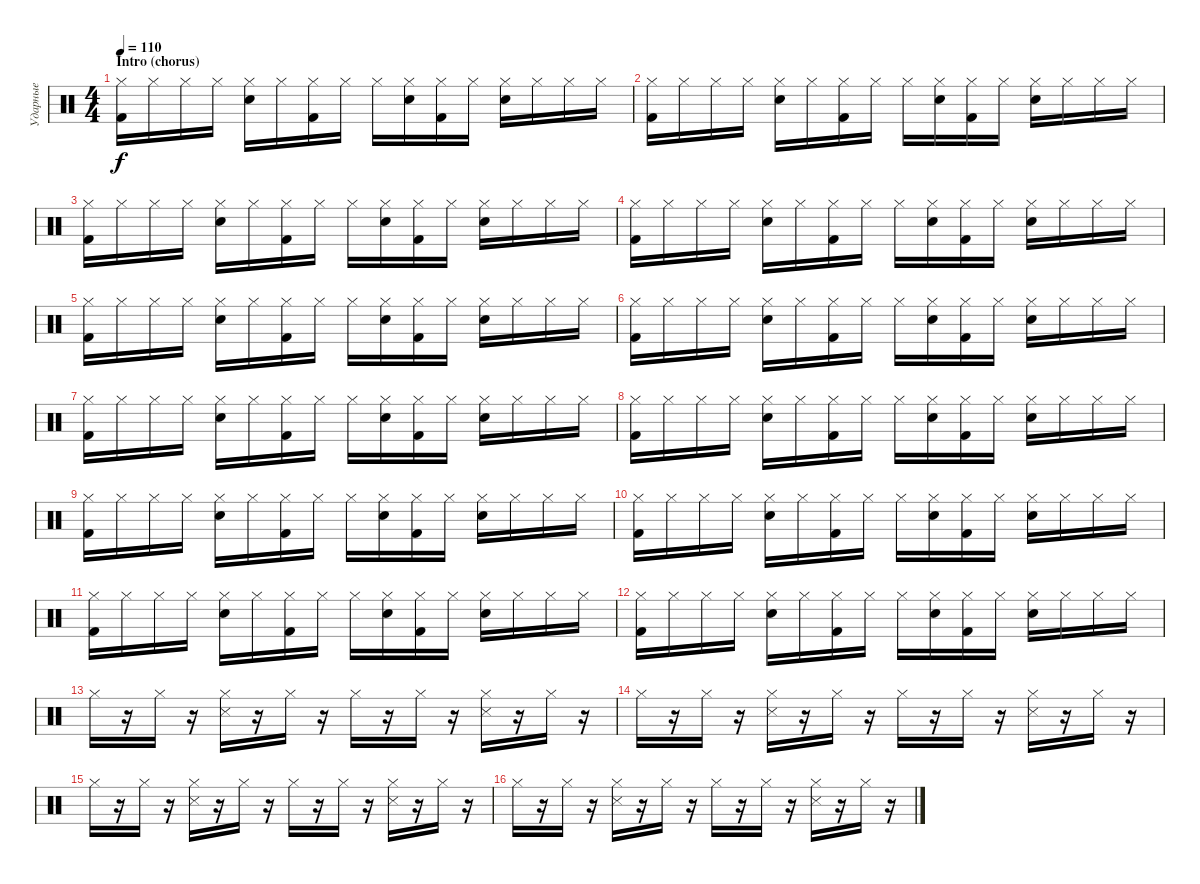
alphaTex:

\track ("Ударные" "Ударные") {instrument percussion}
\staff {score}
\articulation defaults
\ts (4 4)
\section ("" "Intro (chorus)")
\tempo 110
\clef neutral
\ks c
("Hi-Hat (closed)" "Kick (hit) 2").16{dy f} "Hi-Hat (closed)".16 "Hi-Hat (closed)".16 "Hi-Hat (closed)".16 ("Hi-Hat (closed)" "Snare (hit) 2").16 "Hi-Hat (closed)".16 ("Hi-Hat (closed)" "Kick (hit) 2").16 "Hi-Hat (closed)".16 "Hi-Hat (closed)".16 ("Hi-Hat (closed)" "Snare (hit) 2").16 ("Hi-Hat (closed)" "Kick (hit) 2").16 "Hi-Hat (closed)".16 ("Hi-Hat (closed)" "Snare (hit) 2").16 "Hi-Hat (closed)".16 "Hi-Hat (closed)".16 "Hi-Hat (closed)".16 |
("Hi-Hat (closed)" "Kick (hit) 2").16 "Hi-Hat (closed)".16 "Hi-Hat (closed)".16 "Hi-Hat (closed)".16 ("Hi-Hat (closed)" "Snare (hit) 2").16 "Hi-Hat (closed)".16 ("Hi-Hat (closed)" "Kick (hit) 2").16 "Hi-Hat (closed)".16 "Hi-Hat (closed)".16 ("Hi-Hat (closed)" "Snare (hit) 2").16 ("Hi-Hat (closed)" "Kick (hit) 2").16 "Hi-Hat (closed)".16 ("Hi-Hat (closed)" "Snare (hit) 2").16 "Hi-Hat (closed)".16 "Hi-Hat (closed)".16 "Hi-Hat (closed)".16 |
("Hi-Hat (closed)" "Kick (hit) 2").16 "Hi-Hat (closed)".16 "Hi-Hat (closed)".16 "Hi-Hat (closed)".16 ("Hi-Hat (closed)" "Snare (hit) 2").16 "Hi-Hat (closed)".16 ("Hi-Hat (closed)" "Kick (hit) 2").16 "Hi-Hat (closed)".16 "Hi-Hat (closed)".16 ("Hi-Hat (closed)" "Snare (hit) 2").16 ("Hi-Hat (closed)" "Kick (hit) 2").16 "Hi-Hat (closed)".16 ("Hi-Hat (closed)" "Snare (hit) 2").16 "Hi-Hat (closed)".16 "Hi-Hat (closed)".16 "Hi-Hat (closed)".16 |
("Hi-Hat (closed)" "Kick (hit) 2").16 "Hi-Hat (closed)".16 "Hi-Hat (closed)".16 "Hi-Hat (closed)".16 ("Hi-Hat (closed)" "Snare (hit) 2").16 "Hi-Hat (closed)".16 ("Hi-Hat (closed)" "Kick (hit) 2").16 "Hi-Hat (closed)".16 "Hi-Hat (closed)".16 ("Hi-Hat (closed)" "Snare (hit) 2").16 ("Hi-Hat (closed)" "Kick (hit) 2").16 "Hi-Hat (closed)".16 ("Hi-Hat (closed)" "Snare (hit) 2").16 "Hi-Hat (closed)".16 "Hi-Hat (closed)".16 "Hi-Hat (closed)".16 |
("Hi-Hat (closed)" "Kick (hit) 2").16 "Hi-Hat (closed)".16 "Hi-Hat (closed)".16 "Hi-Hat (closed)".16 ("Hi-Hat (closed)" "Snare (hit) 2").16 "Hi-Hat (closed)".16 ("Hi-Hat (closed)" "Kick (hit) 2").16 "Hi-Hat (closed)".16 "Hi-Hat (closed)".16 ("Hi-Hat (closed)" "Snare (hit) 2").16 ("Hi-Hat (closed)" "Kick (hit) 2").16 "Hi-Hat (closed)".16 ("Hi-Hat (closed)" "Snare (hit) 2").16 "Hi-Hat (closed)".16 "Hi-Hat (closed)".16 "Hi-Hat (closed)".16 |
("Hi-Hat (closed)" "Kick (hit) 2").16 "Hi-Hat (closed)".16 "Hi-Hat (closed)".16 "Hi-Hat (closed)".16 ("Hi-Hat (closed)" "Snare (hit) 2").16 "Hi-Hat (closed)".16 ("Hi-Hat (closed)" "Kick (hit) 2").16 "Hi-Hat (closed)".16 "Hi-Hat (closed)".16 ("Hi-Hat (closed)" "Snare (hit) 2").16 ("Hi-Hat (closed)" "Kick (hit) 2").16 "Hi-Hat (closed)".16 ("Hi-Hat (closed)" "Snare (hit) 2").16 "Hi-Hat (closed)".16 "Hi-Hat (closed)".16 "Hi-Hat (closed)".16 |
("Hi-Hat (closed)" "Kick (hit) 2").16 "Hi-Hat (closed)".16 "Hi-Hat (closed)".16 "Hi-Hat (closed)".16 ("Hi-Hat (closed)" "Snare (hit) 2").16 "Hi-Hat (closed)".16 ("Hi-Hat (closed)" "Kick (hit) 2").16 "Hi-Hat (closed)".16 "Hi-Hat (closed)".16 ("Hi-Hat (closed)" "Snare (hit) 2").16 ("Hi-Hat (closed)" "Kick (hit) 2").16 "Hi-Hat (closed)".16 ("Hi-Hat (closed)" "Snare (hit) 2").16 "Hi-Hat (closed)".16 "Hi-Hat (closed)".16 "Hi-Hat (closed)".16 |
("Hi-Hat (closed)" "Kick (hit) 2").16 "Hi-Hat (closed)".16 "Hi-Hat (closed)".16 "Hi-Hat (closed)".16 ("Hi-Hat (closed)" "Snare (hit) 2").16 "Hi-Hat (closed)".16 ("Hi-Hat (closed)" "Kick (hit) 2").16 "Hi-Hat (closed)".16 "Hi-Hat (closed)".16 ("Hi-Hat (closed)" "Snare (hit) 2").16 ("Hi-Hat (closed)" "Kick (hit) 2").16 "Hi-Hat (closed)".16 ("Hi-Hat (closed)" "Snare (hit) 2").16 "Hi-Hat (closed)".16 "Hi-Hat (closed)".16 "Hi-Hat (closed)".16 |
("Hi-Hat (closed)" "Kick (hit) 2").16 "Hi-Hat (closed)".16 "Hi-Hat (closed)".16 "Hi-Hat (closed)".16 ("Hi-Hat (closed)" "Snare (hit) 2").16 "Hi-Hat (closed)".16 ("Hi-Hat (closed)" "Kick (hit) 2").16 "Hi-Hat (closed)".16 "Hi-Hat (closed)".16 ("Hi-Hat (closed)" "Snare (hit) 2").16 ("Hi-Hat (closed)" "Kick (hit) 2").16 "Hi-Hat (closed)".16 ("Hi-Hat (closed)" "Snare (hit) 2").16 "Hi-Hat (closed)".16 "Hi-Hat (closed)".16 "Hi-Hat (closed)".16 |
("Hi-Hat (closed)" "Kick (hit) 2").16 "Hi-Hat (closed)".16 "Hi-Hat (closed)".16 "Hi-Hat (closed)".16 ("Hi-Hat (closed)" "Snare (hit) 2").16 "Hi-Hat (closed)".16 ("Hi-Hat (closed)" "Kick (hit) 2").16 "Hi-Hat (closed)".16 "Hi-Hat (closed)".16 ("Hi-Hat (closed)" "Snare (hit) 2").16 ("Hi-Hat (closed)" "Kick (hit) 2").16 "Hi-Hat (closed)".16 ("Hi-Hat (closed)" "Snare (hit) 2").16 "Hi-Hat (closed)".16 "Hi-Hat (closed)".16 "Hi-Hat (closed)".16 |
("Hi-Hat (closed)" "Kick (hit) 2").16 "Hi-Hat (closed)".16 "Hi-Hat (closed)".16 "Hi-Hat (closed)".16 ("Hi-Hat (closed)" "Snare (hit) 2").16 "Hi-Hat (closed)".16 ("Hi-Hat (closed)" "Kick (hit) 2").16 "Hi-Hat (closed)".16 "Hi-Hat (closed)".16 ("Hi-Hat (closed)" "Snare (hit) 2").16 ("Hi-Hat (closed)" "Kick (hit) 2").16 "Hi-Hat (closed)".16 ("Hi-Hat (closed)" "Snare (hit) 2").16 "Hi-Hat (closed)".16 "Hi-Hat (closed)".16 "Hi-Hat (closed)".16 |
("Hi-Hat (closed)" "Kick (hit) 2").16 "Hi-Hat (closed)".16 "Hi-Hat (closed)".16 "Hi-Hat (closed)".16 ("Hi-Hat (closed)" "Snare (hit) 2").16 "Hi-Hat (closed)".16 ("Hi-Hat (closed)" "Kick (hit) 2").16 "Hi-Hat (closed)".16 "Hi-Hat (closed)".16 ("Hi-Hat (closed)" "Snare (hit) 2").16 ("Hi-Hat (closed)" "Kick (hit) 2").16 "Hi-Hat (closed)".16 ("Hi-Hat (closed)" "Snare (hit) 2").16 "Hi-Hat (closed)".16 "Hi-Hat (closed)".16 "Hi-Hat (closed)".16 |
"Hi-Hat (closed)".16 r.16 "Hi-Hat (closed)".16 r.16 ("Hi-Hat (closed)" "Snare (side stick) 3").16 r.16 "Hi-Hat (closed)".16 r.16 "Hi-Hat (closed)".16 r.16 "Hi-Hat (closed)".16 r.16 ("Hi-Hat (closed)" "Snare (side stick) 3").16 r.16 "Hi-Hat (closed)".16 r.16 |
"Hi-Hat (closed)".16 r.16 "Hi-Hat (closed)".16 r.16 ("Hi-Hat (closed)" "Snare (side stick) 3").16 r.16 "Hi-Hat (closed)".16 r.16 "Hi-Hat (closed)".16 r.16 "Hi-Hat (closed)".16 r.16 ("Hi-Hat (closed)" "Snare (side stick) 3").16 r.16 "Hi-Hat (closed)".16 r.16 |
"Hi-Hat (closed)".16 r.16 "Hi-Hat (closed)".16 r.16 ("Hi-Hat (closed)" "Snare (side stick) 3").16 r.16 "Hi-Hat (closed)".16 r.16 "Hi-Hat (closed)".16 r.16 "Hi-Hat (closed)".16 r.16 ("Hi-Hat (closed)" "Snare (side stick) 3").16 r.16 "Hi-Hat (closed)".16 r.16 |
"Hi-Hat (closed)".16 r.16 "Hi-Hat (closed)".16 r.16 ("Hi-Hat (closed)" "Snare (side stick) 3").16 r.16 "Hi-Hat (closed)".16 r.16 "Hi-Hat (closed)".16 r.16 "Hi-Hat (closed)".16 r.16 ("Hi-Hat (closed)" "Snare (side stick) 3").16 r.16 "Hi-Hat (closed)".16 r.16
